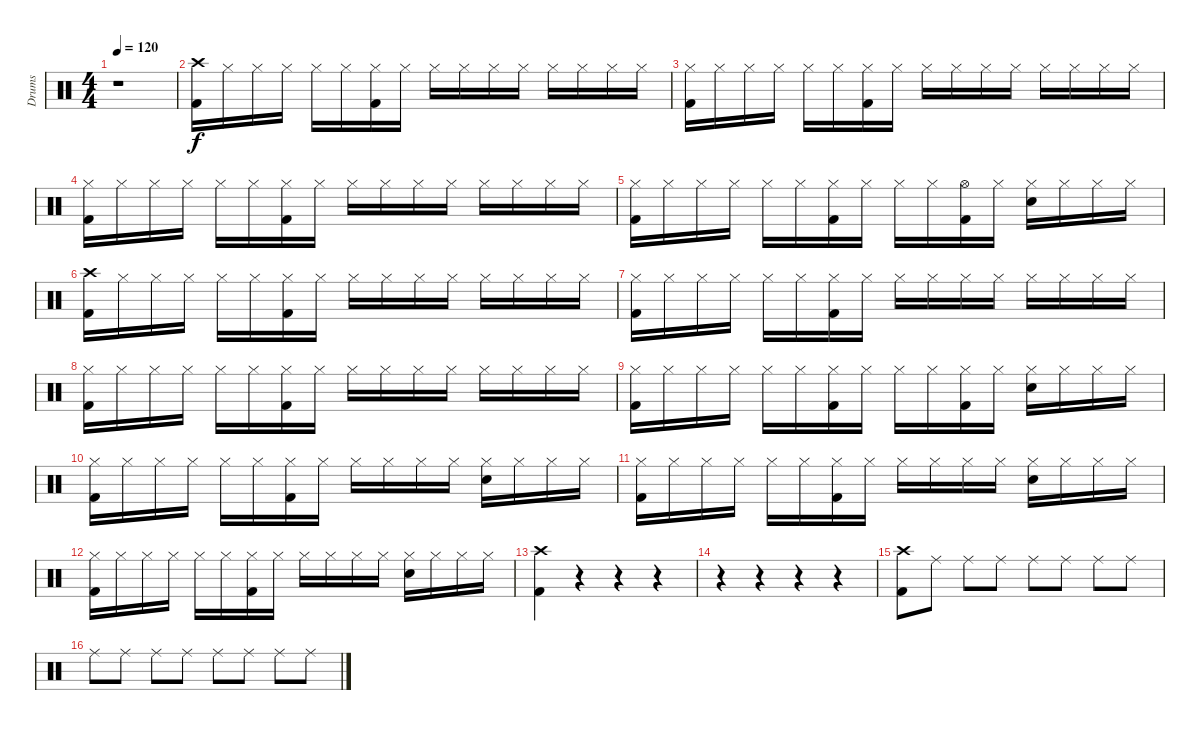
\track ("Drums" "Drums") {instrument percussion}
\staff {score}
\articulation defaults
\ts (4 4)
\tempo 120
\clef neutral
\ks c
r.1{dy f} |
("Crash high (hit)" "Kick (hit) 2").16 "Hi-Hat (closed)".16 "Hi-Hat (closed)".16 "Hi-Hat (closed)".16 "Hi-Hat (closed)".16 "Hi-Hat (closed)".16 ("Hi-Hat (closed)" "Kick (hit) 2").16 "Hi-Hat (closed)".16 "Hi-Hat (closed)".16 "Hi-Hat (closed)".16 "Hi-Hat (closed)".16 "Hi-Hat (closed)".16 "Hi-Hat (closed)".16 "Hi-Hat (closed)".16 "Hi-Hat (closed)".16 "Hi-Hat (closed)".16 |
("Hi-Hat (closed)" "Kick (hit) 2").16 "Hi-Hat (closed)".16 "Hi-Hat (closed)".16 "Hi-Hat (closed)".16 "Hi-Hat (closed)".16 "Hi-Hat (closed)".16 ("Hi-Hat (closed)" "Kick (hit) 2").16 "Hi-Hat (closed)".16 "Hi-Hat (closed)".16 "Hi-Hat (closed)".16 "Hi-Hat (closed)".16 "Hi-Hat (closed)".16 "Hi-Hat (closed)".16 "Hi-Hat (closed)".16 "Hi-Hat (closed)".16 "Hi-Hat (closed)".16 |
("Hi-Hat (closed)" "Kick (hit) 2").16 "Hi-Hat (closed)".16 "Hi-Hat (closed)".16 "Hi-Hat (closed)".16 "Hi-Hat (closed)".16 "Hi-Hat (closed)".16 ("Hi-Hat (closed)" "Kick (hit) 2").16 "Hi-Hat (closed)".16 "Hi-Hat (closed)".16 "Hi-Hat (closed)".16 "Hi-Hat (closed)".16 "Hi-Hat (closed)".16 "Hi-Hat (closed)".16 "Hi-Hat (closed)".16 "Hi-Hat (closed)".16 "Hi-Hat (closed)".16 |
("Hi-Hat (closed)" "Kick (hit) 2").16 "Hi-Hat (closed)".16 "Hi-Hat (closed)".16 "Hi-Hat (closed)".16 "Hi-Hat (closed)".16 "Hi-Hat (closed)".16 ("Hi-Hat (closed)" "Kick (hit) 2").16 "Hi-Hat (closed)".16 "Hi-Hat (closed)".16 "Hi-Hat (closed)".16 ("Hi-Hat (open)" "Kick (hit) 2").16 "Hi-Hat (closed)".16 ("Hi-Hat (closed)" "Snare (hit) 2").16 "Hi-Hat (closed)".16 "Hi-Hat (closed)".16 "Hi-Hat (closed)".16 |
("Crash high (hit)" "Kick (hit) 2").16 "Hi-Hat (closed)".16 "Hi-Hat (closed)".16 "Hi-Hat (closed)".16 "Hi-Hat (closed)".16 "Hi-Hat (closed)".16 ("Hi-Hat (closed)" "Kick (hit) 2").16 "Hi-Hat (closed)".16 "Hi-Hat (closed)".16 "Hi-Hat (closed)".16 "Hi-Hat (closed)".16 "Hi-Hat (closed)".16 "Hi-Hat (closed)".16 "Hi-Hat (closed)".16 "Hi-Hat (closed)".16 "Hi-Hat (closed)".16 |
("Hi-Hat (closed)" "Kick (hit) 2").16 "Hi-Hat (closed)".16 "Hi-Hat (closed)".16 "Hi-Hat (closed)".16 "Hi-Hat (closed)".16 "Hi-Hat (closed)".16 ("Hi-Hat (closed)" "Kick (hit) 2").16 "Hi-Hat (closed)".16 "Hi-Hat (closed)".16 "Hi-Hat (closed)".16 "Hi-Hat (closed)".16 "Hi-Hat (closed)".16 "Hi-Hat (closed)".16 "Hi-Hat (closed)".16 "Hi-Hat (closed)".16 "Hi-Hat (closed)".16 |
("Hi-Hat (closed)" "Kick (hit) 2").16 "Hi-Hat (closed)".16 "Hi-Hat (closed)".16 "Hi-Hat (closed)".16 "Hi-Hat (closed)".16 "Hi-Hat (closed)".16 ("Hi-Hat (closed)" "Kick (hit) 2").16 "Hi-Hat (closed)".16 "Hi-Hat (closed)".16 "Hi-Hat (closed)".16 "Hi-Hat (closed)".16 "Hi-Hat (closed)".16 "Hi-Hat (closed)".16 "Hi-Hat (closed)".16 "Hi-Hat (closed)".16 "Hi-Hat (closed)".16 |
("Hi-Hat (closed)" "Kick (hit) 2").16 "Hi-Hat (closed)".16 "Hi-Hat (closed)".16 "Hi-Hat (closed)".16 "Hi-Hat (closed)".16 "Hi-Hat (closed)".16 ("Hi-Hat (closed)" "Kick (hit) 2").16 "Hi-Hat (closed)".16 "Hi-Hat (closed)".16 "Hi-Hat (closed)".16 ("Hi-Hat (closed)" "Kick (hit) 2").16 "Hi-Hat (closed)".16 ("Hi-Hat (closed)" "Snare (hit) 2").16 "Hi-Hat (closed)".16 "Hi-Hat (closed)".16 "Hi-Hat (closed)".16 |
("Hi-Hat (closed)" "Kick (hit) 2").16 "Hi-Hat (closed)".16 "Hi-Hat (closed)".16 "Hi-Hat (closed)".16 "Hi-Hat (closed)".16 "Hi-Hat (closed)".16 ("Hi-Hat (closed)" "Kick (hit) 2").16 "Hi-Hat (closed)".16 "Hi-Hat (closed)".16 "Hi-Hat (closed)".16 "Hi-Hat (closed)".16 "Hi-Hat (closed)".16 ("Hi-Hat (closed)" "Snare (hit) 2").16 "Hi-Hat (closed)".16 "Hi-Hat (closed)".16 "Hi-Hat (closed)".16 |
("Hi-Hat (closed)" "Kick (hit) 2").16 "Hi-Hat (closed)".16 "Hi-Hat (closed)".16 "Hi-Hat (closed)".16 "Hi-Hat (closed)".16 "Hi-Hat (closed)".16 ("Hi-Hat (closed)" "Kick (hit) 2").16 "Hi-Hat (closed)".16 "Hi-Hat (closed)".16 "Hi-Hat (closed)".16 "Hi-Hat (closed)".16 "Hi-Hat (closed)".16 ("Hi-Hat (closed)" "Snare (hit) 2").16 "Hi-Hat (closed)".16 "Hi-Hat (closed)".16 "Hi-Hat (closed)".16 |
("Hi-Hat (closed)" "Kick (hit) 2").16 "Hi-Hat (closed)".16 "Hi-Hat (closed)".16 "Hi-Hat (closed)".16 "Hi-Hat (closed)".16 "Hi-Hat (closed)".16 ("Hi-Hat (closed)" "Kick (hit) 2").16 "Hi-Hat (closed)".16 "Hi-Hat (closed)".16 "Hi-Hat (closed)".16 "Hi-Hat (closed)".16 "Hi-Hat (closed)".16 ("Hi-Hat (closed)" "Snare (hit) 2").16 "Hi-Hat (closed)".16 "Hi-Hat (closed)".16 "Hi-Hat (closed)".16 |
("Crash high (hit)" "Kick (hit) 2").4 r.4 r.4 r.4 |
r.4 r.4 r.4 r.4 |
("Crash high (hit)" "Kick (hit) 2").8 "Ride (middle)".8 "Ride (middle)".8 "Ride (middle)".8 "Ride (middle)".8 "Ride (middle)".8 "Ride (middle)".8 "Ride (middle)".8 |
"Ride (middle)".8 "Ride (middle)".8 "Ride (middle)".8 "Ride (middle)".8 "Ride (middle)".8 "Ride (middle)".8 "Ride (middle)".8 "Ride (middle)".8
